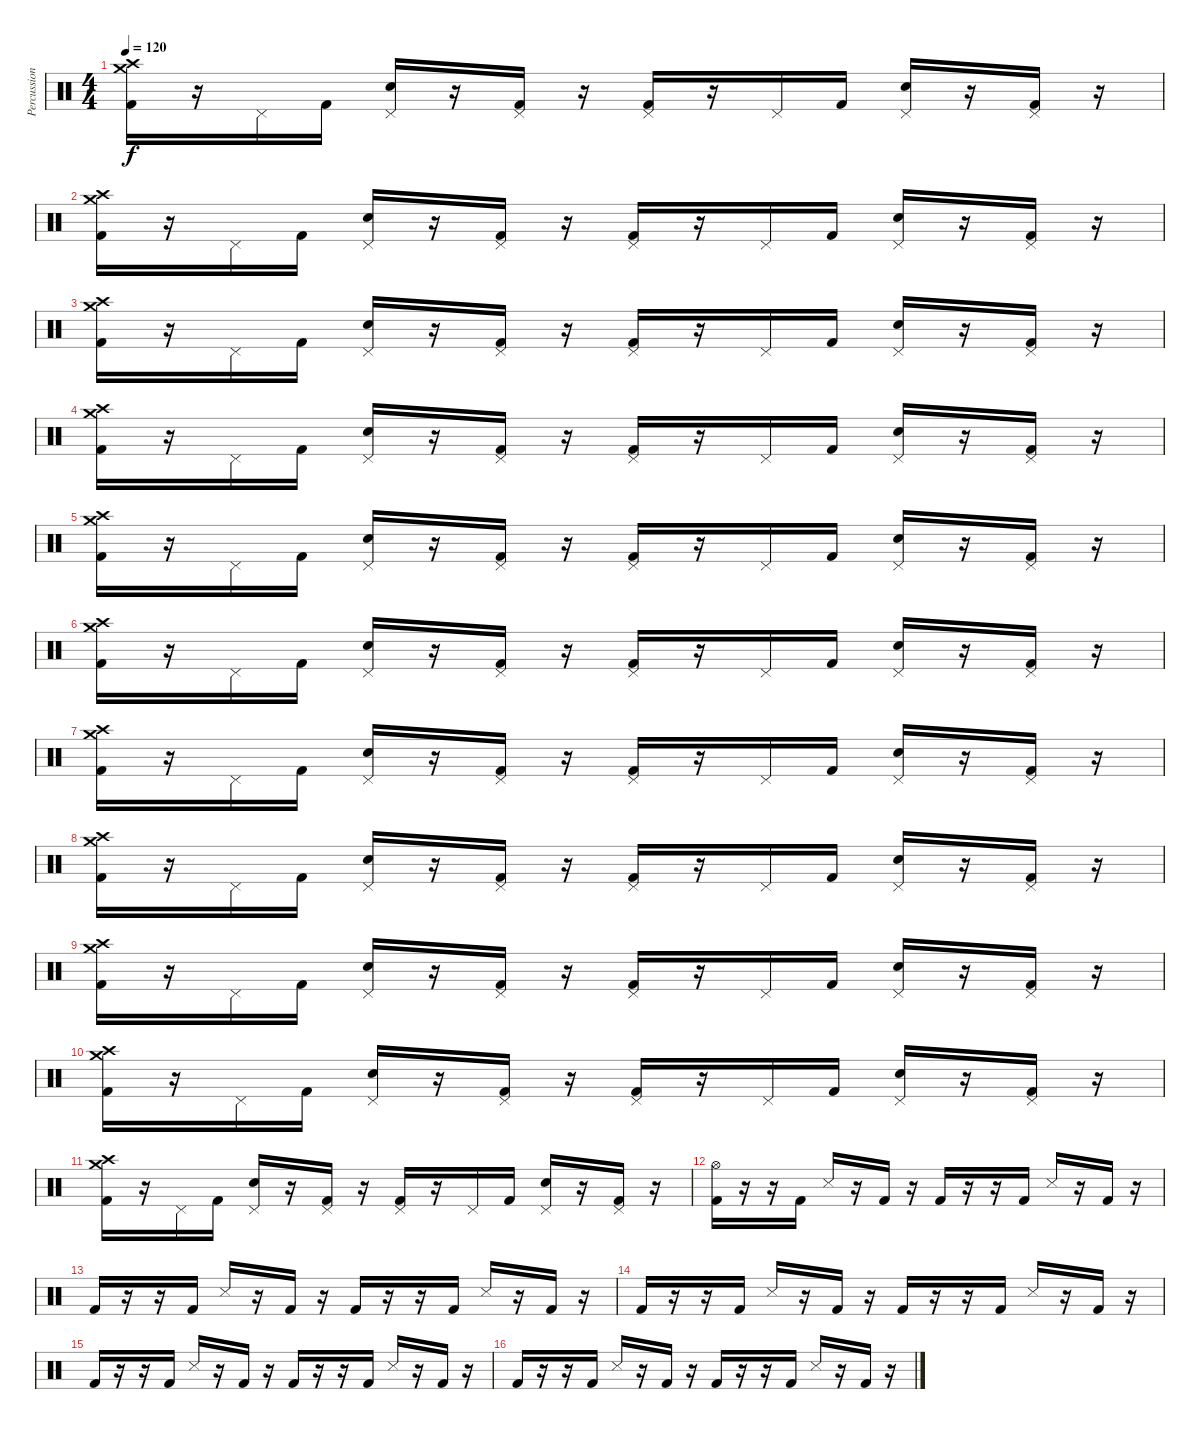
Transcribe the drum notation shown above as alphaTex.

\track ("Percussion" "Percussion") {instrument percussion}
\staff {score}
\articulation defaults
\ts (4 4)
\tempo 120
\clef neutral
\ks c
("Crash medium (hit)" "Crash high (hit)" "Kick (hit) 2").16{dy f} r.16 "Pedal Hi-Hat (hit)".16 "Kick (hit) 2".16 ("Pedal Hi-Hat (hit)" "Snare (hit) 2").16 r.16 ("Pedal Hi-Hat (hit)" "Kick (hit) 2").16 r.16 ("Pedal Hi-Hat (hit)" "Kick (hit) 2").16 r.16 "Pedal Hi-Hat (hit)".16 "Kick (hit) 2".16 ("Pedal Hi-Hat (hit)" "Snare (hit) 2").16 r.16 ("Pedal Hi-Hat (hit)" "Kick (hit) 2").16 r.16 |
("Crash medium (hit)" "Crash high (hit)" "Kick (hit) 2").16 r.16 "Pedal Hi-Hat (hit)".16 "Kick (hit) 2".16 ("Pedal Hi-Hat (hit)" "Snare (hit) 2").16 r.16 ("Pedal Hi-Hat (hit)" "Kick (hit) 2").16 r.16 ("Pedal Hi-Hat (hit)" "Kick (hit) 2").16 r.16 "Pedal Hi-Hat (hit)".16 "Kick (hit) 2".16 ("Pedal Hi-Hat (hit)" "Snare (hit) 2").16 r.16 ("Pedal Hi-Hat (hit)" "Kick (hit) 2").16 r.16 |
("Crash medium (hit)" "Crash high (hit)" "Kick (hit) 2").16 r.16 "Pedal Hi-Hat (hit)".16 "Kick (hit) 2".16 ("Pedal Hi-Hat (hit)" "Snare (hit) 2").16 r.16 ("Pedal Hi-Hat (hit)" "Kick (hit) 2").16 r.16 ("Pedal Hi-Hat (hit)" "Kick (hit) 2").16 r.16 "Pedal Hi-Hat (hit)".16 "Kick (hit) 2".16 ("Pedal Hi-Hat (hit)" "Snare (hit) 2").16 r.16 ("Pedal Hi-Hat (hit)" "Kick (hit) 2").16 r.16 |
("Crash medium (hit)" "Crash high (hit)" "Kick (hit) 2").16 r.16 "Pedal Hi-Hat (hit)".16 "Kick (hit) 2".16 ("Pedal Hi-Hat (hit)" "Snare (hit) 2").16 r.16 ("Pedal Hi-Hat (hit)" "Kick (hit) 2").16 r.16 ("Pedal Hi-Hat (hit)" "Kick (hit) 2").16 r.16 "Pedal Hi-Hat (hit)".16 "Kick (hit) 2".16 ("Pedal Hi-Hat (hit)" "Snare (hit) 2").16 r.16 ("Pedal Hi-Hat (hit)" "Kick (hit) 2").16 r.16 |
("Crash medium (hit)" "Crash high (hit)" "Kick (hit) 2").16 r.16 "Pedal Hi-Hat (hit)".16 "Kick (hit) 2".16 ("Pedal Hi-Hat (hit)" "Snare (hit) 2").16 r.16 ("Pedal Hi-Hat (hit)" "Kick (hit) 2").16 r.16 ("Pedal Hi-Hat (hit)" "Kick (hit) 2").16 r.16 "Pedal Hi-Hat (hit)".16 "Kick (hit) 2".16 ("Pedal Hi-Hat (hit)" "Snare (hit) 2").16 r.16 ("Pedal Hi-Hat (hit)" "Kick (hit) 2").16 r.16 |
("Crash medium (hit)" "Crash high (hit)" "Kick (hit) 2").16 r.16 "Pedal Hi-Hat (hit)".16 "Kick (hit) 2".16 ("Pedal Hi-Hat (hit)" "Snare (hit) 2").16 r.16 ("Pedal Hi-Hat (hit)" "Kick (hit) 2").16 r.16 ("Pedal Hi-Hat (hit)" "Kick (hit) 2").16 r.16 "Pedal Hi-Hat (hit)".16 "Kick (hit) 2".16 ("Pedal Hi-Hat (hit)" "Snare (hit) 2").16 r.16 ("Pedal Hi-Hat (hit)" "Kick (hit) 2").16 r.16 |
("Crash medium (hit)" "Crash high (hit)" "Kick (hit) 2").16 r.16 "Pedal Hi-Hat (hit)".16 "Kick (hit) 2".16 ("Pedal Hi-Hat (hit)" "Snare (hit) 2").16 r.16 ("Pedal Hi-Hat (hit)" "Kick (hit) 2").16 r.16 ("Pedal Hi-Hat (hit)" "Kick (hit) 2").16 r.16 "Pedal Hi-Hat (hit)".16 "Kick (hit) 2".16 ("Pedal Hi-Hat (hit)" "Snare (hit) 2").16 r.16 ("Pedal Hi-Hat (hit)" "Kick (hit) 2").16 r.16 |
("Crash medium (hit)" "Crash high (hit)" "Kick (hit) 2").16 r.16 "Pedal Hi-Hat (hit)".16 "Kick (hit) 2".16 ("Pedal Hi-Hat (hit)" "Snare (hit) 2").16 r.16 ("Pedal Hi-Hat (hit)" "Kick (hit) 2").16 r.16 ("Pedal Hi-Hat (hit)" "Kick (hit) 2").16 r.16 "Pedal Hi-Hat (hit)".16 "Kick (hit) 2".16 ("Pedal Hi-Hat (hit)" "Snare (hit) 2").16 r.16 ("Pedal Hi-Hat (hit)" "Kick (hit) 2").16 r.16 |
("Crash medium (hit)" "Crash high (hit)" "Kick (hit) 2").16 r.16 "Pedal Hi-Hat (hit)".16 "Kick (hit) 2".16 ("Pedal Hi-Hat (hit)" "Snare (hit) 2").16 r.16 ("Pedal Hi-Hat (hit)" "Kick (hit) 2").16 r.16 ("Pedal Hi-Hat (hit)" "Kick (hit) 2").16 r.16 "Pedal Hi-Hat (hit)".16 "Kick (hit) 2".16 ("Pedal Hi-Hat (hit)" "Snare (hit) 2").16 r.16 ("Pedal Hi-Hat (hit)" "Kick (hit) 2").16 r.16 |
("Crash medium (hit)" "Crash high (hit)" "Kick (hit) 2").16 r.16 "Pedal Hi-Hat (hit)".16 "Kick (hit) 2".16 ("Pedal Hi-Hat (hit)" "Snare (hit) 2").16 r.16 ("Pedal Hi-Hat (hit)" "Kick (hit) 2").16 r.16 ("Pedal Hi-Hat (hit)" "Kick (hit) 2").16 r.16 "Pedal Hi-Hat (hit)".16 "Kick (hit) 2".16 ("Pedal Hi-Hat (hit)" "Snare (hit) 2").16 r.16 ("Pedal Hi-Hat (hit)" "Kick (hit) 2").16 r.16 |
("Crash medium (hit)" "Crash high (hit)" "Kick (hit) 2").16 r.16 "Pedal Hi-Hat (hit)".16 "Kick (hit) 2".16 ("Pedal Hi-Hat (hit)" "Snare (hit) 2").16 r.16 ("Pedal Hi-Hat (hit)" "Kick (hit) 2").16 r.16 ("Pedal Hi-Hat (hit)" "Kick (hit) 2").16 r.16 "Pedal Hi-Hat (hit)".16 "Kick (hit) 2".16 ("Pedal Hi-Hat (hit)" "Snare (hit) 2").16 r.16 ("Pedal Hi-Hat (hit)" "Kick (hit) 2").16 r.16 |
("Hi-Hat (open)" "Kick (hit) 2").16 r.16 r.16 "Kick (hit) 2".16 "Snare (side stick) 3".16 r.16 "Kick (hit) 2".16 r.16 "Kick (hit) 2".16 r.16 r.16 "Kick (hit) 2".16 "Snare (side stick) 3".16 r.16 "Kick (hit) 2".16 r.16 |
"Kick (hit) 2".16 r.16 r.16 "Kick (hit) 2".16 "Snare (side stick) 3".16 r.16 "Kick (hit) 2".16 r.16 "Kick (hit) 2".16 r.16 r.16 "Kick (hit) 2".16 "Snare (side stick) 3".16 r.16 "Kick (hit) 2".16 r.16 |
"Kick (hit) 2".16 r.16 r.16 "Kick (hit) 2".16 "Snare (side stick) 3".16 r.16 "Kick (hit) 2".16 r.16 "Kick (hit) 2".16 r.16 r.16 "Kick (hit) 2".16 "Snare (side stick) 3".16 r.16 "Kick (hit) 2".16 r.16 |
"Kick (hit) 2".16 r.16 r.16 "Kick (hit) 2".16 "Snare (side stick) 3".16 r.16 "Kick (hit) 2".16 r.16 "Kick (hit) 2".16 r.16 r.16 "Kick (hit) 2".16 "Snare (side stick) 3".16 r.16 "Kick (hit) 2".16 r.16 |
"Kick (hit) 2".16 r.16 r.16 "Kick (hit) 2".16 "Snare (side stick) 3".16 r.16 "Kick (hit) 2".16 r.16 "Kick (hit) 2".16 r.16 r.16 "Kick (hit) 2".16 "Snare (side stick) 3".16 r.16 "Kick (hit) 2".16 r.16
